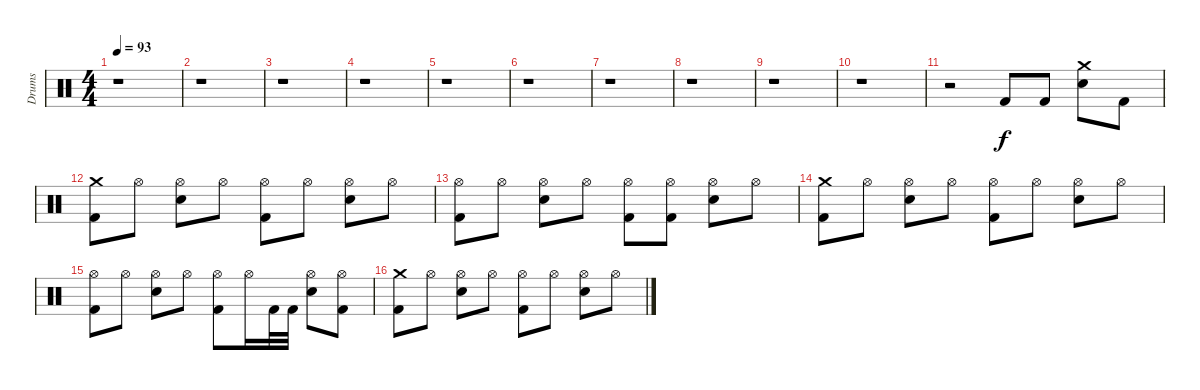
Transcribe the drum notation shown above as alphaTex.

\track ("Drums" "Drums") {instrument percussion}
\staff {score}
\articulation defaults
\ts (4 4)
\tempo 93
\clef neutral
\ks c
r.1{dy f} |
r.1 |
r.1 |
r.1 |
r.1 |
r.1 |
r.1 |
r.1 |
r.1 |
r.1 |
r.2 "Kick (hit) 2".8 "Kick (hit) 2".8 ("Crash medium (hit)" "Electric Snare (hit)").8 "Kick (hit) 2".8 |
("Crash medium (hit)" "Kick (hit) 2").8 "Hi-Hat (open)".8 ("Hi-Hat (open)" "Electric Snare (hit)").8 "Hi-Hat (open)".8 ("Hi-Hat (open)" "Kick (hit) 2").8 "Hi-Hat (open)".8 ("Hi-Hat (open)" "Electric Snare (hit)").8 "Hi-Hat (open)".8 |
("Hi-Hat (open)" "Kick (hit) 2").8 "Hi-Hat (open)".8 ("Hi-Hat (open)" "Electric Snare (hit)").8 "Hi-Hat (open)".8 ("Hi-Hat (open)" "Kick (hit) 2").8 ("Hi-Hat (open)" "Kick (hit) 2").8 ("Hi-Hat (open)" "Electric Snare (hit)").8 "Hi-Hat (open)".8 |
("Crash medium (hit)" "Kick (hit) 2").8 "Hi-Hat (open)".8 ("Hi-Hat (open)" "Electric Snare (hit)").8 "Hi-Hat (open)".8 ("Hi-Hat (open)" "Kick (hit) 2").8 "Hi-Hat (open)".8 ("Hi-Hat (open)" "Electric Snare (hit)").8 "Hi-Hat (open)".8 |
("Hi-Hat (open)" "Kick (hit) 2").8 "Hi-Hat (open)".8 ("Hi-Hat (open)" "Electric Snare (hit)").8 "Hi-Hat (open)".8 ("Hi-Hat (open)" "Kick (hit) 2").8 "Hi-Hat (open)".16 "Kick (hit) 2".32 "Kick (hit) 2".32 ("Hi-Hat (open)" "Electric Snare (hit)").8 ("Hi-Hat (open)" "Kick (hit) 2").8 |
("Crash medium (hit)" "Kick (hit) 2").8 "Hi-Hat (open)".8 ("Hi-Hat (open)" "Electric Snare (hit)").8 "Hi-Hat (open)".8 ("Hi-Hat (open)" "Kick (hit) 2").8 "Hi-Hat (open)".8 ("Hi-Hat (open)" "Electric Snare (hit)").8 "Hi-Hat (open)".8
